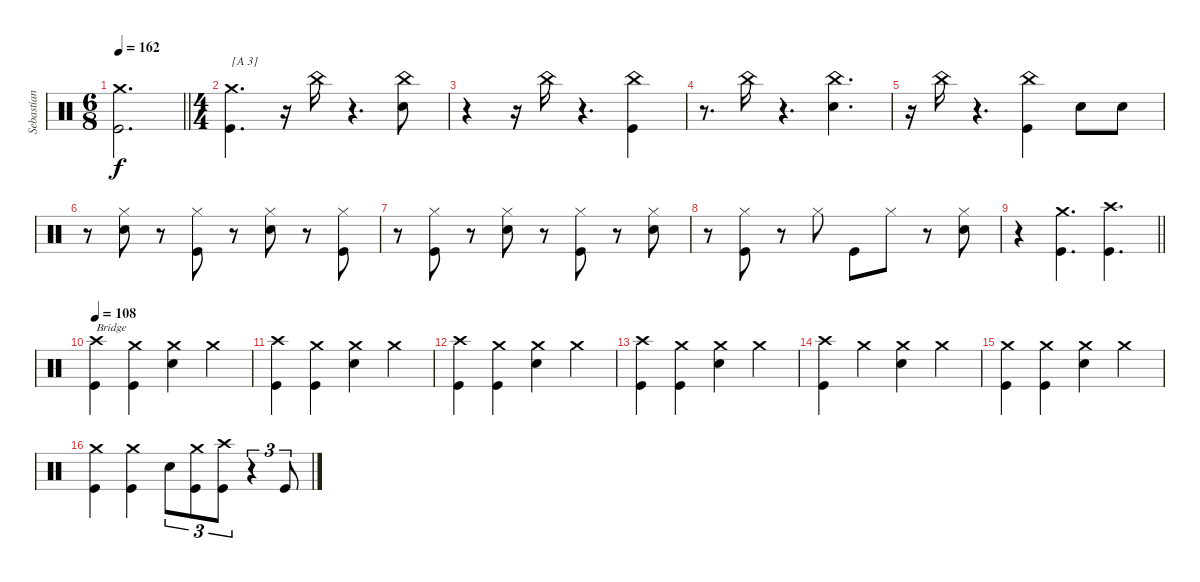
\track ("Sebastian Lanser" "Sebastian ") {instrument percussion}
\staff {score}
\articulation defaults
\ts (6 8)
\tempo 162
\clef neutral
\barLineRight lightlight
\ks c
("Crash medium (hit)" "Kick (hit)").2{d dy f} |
\ts (4 4)
("Crash medium (hit)" "Kick (hit)").4{d txt "[A 3]"} r.16 "China (hit)".16 r.4{d} ("China (hit)" "Snare (hit) 2").8 |
r.4 r.16 "China (hit)".16 r.4{d} ("China (hit)" "Kick (hit)").4 |
r.8{d} "China (hit)".16 r.4{d} ("China (hit)" "Snare (hit) 2").4{d} |
r.16 "China (hit)".16 r.4{d} ("China (hit)" "Kick (hit)").4 "Snare (hit) 2".8 "Snare (hit) 2".8 |
r.8 ("Hi-Hat (closed)" "Snare (hit) 2").8 r.8 ("Hi-Hat (closed)" "Kick (hit)").8 r.8 ("Hi-Hat (closed)" "Snare (hit) 2").8 r.8 ("Hi-Hat (closed)" "Kick (hit)").8 |
r.8 ("Hi-Hat (closed)" "Kick (hit)").8 r.8 ("Hi-Hat (closed)" "Snare (hit) 2").8 r.8 ("Hi-Hat (closed)" "Kick (hit)").8 r.8 ("Hi-Hat (closed)" "Snare (hit) 2").8 |
r.8 ("Hi-Hat (closed)" "Kick (hit)").8 r.8 "Hi-Hat (closed)".8 "Kick (hit)".8 "Hi-Hat (closed)".8 r.8 ("Hi-Hat (closed)" "Snare (hit) 2").8 |
\barLineRight lightlight
r.4 ("Crash medium (hit)" "Kick (hit)").4{d} ("Crash high (hit)" "Kick (hit)").4{d} |
\tempo 108
("Crash high (hit)" "Kick (hit)").4{txt "Bridge"} ("Crash medium (hit)" "Kick (hit)").4 ("Crash medium (hit)" "Snare (hit) 2").4 "Crash medium (hit)".4 |
("Crash high (hit)" "Kick (hit)").4 ("Crash medium (hit)" "Kick (hit)").4 ("Crash medium (hit)" "Snare (hit) 2").4 "Crash medium (hit)".4 |
("Crash high (hit)" "Kick (hit)").4 ("Crash medium (hit)" "Kick (hit)").4 ("Crash medium (hit)" "Snare (hit) 2").4 "Crash medium (hit)".4 |
("Crash high (hit)" "Kick (hit)").4 ("Crash medium (hit)" "Kick (hit)").4 ("Crash medium (hit)" "Snare (hit) 2").4 "Crash medium (hit)".4 |
("Crash high (hit)" "Kick (hit)").4 "Crash medium (hit)".4 ("Crash medium (hit)" "Snare (hit) 2").4 "Crash medium (hit)".4 |
("Crash medium (hit)" "Kick (hit)").4 ("Crash medium (hit)" "Kick (hit)").4 ("Crash medium (hit)" "Snare (hit) 2").4 "Crash medium (hit)".4 |
("Crash medium (hit)" "Kick (hit)").4 ("Crash medium (hit)" "Kick (hit)").4 "Snare (hit) 2".8{tu (3 2)} ("Crash medium (hit)" "Kick (hit)").8{tu (3 2)} ("Crash high (hit)" "Kick (hit)").8{tu (3 2)} r.4{tu (3 2)} "Kick (hit)".8{tu (3 2)}
